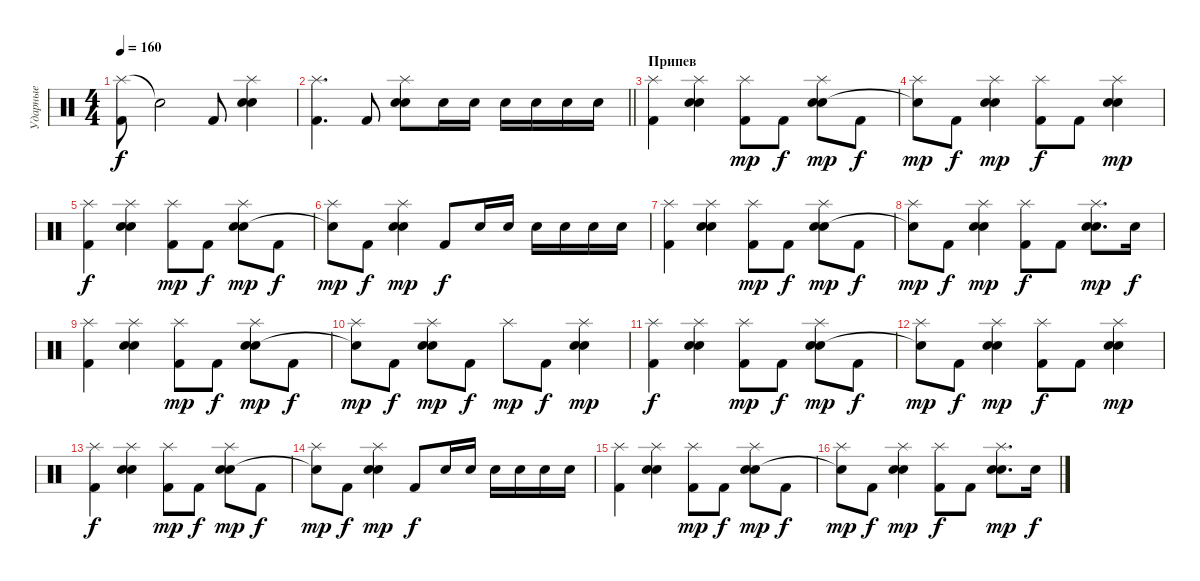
\track ("Ударные" "Ударные") {instrument percussion}
\staff {score}
\articulation defaults
\ts (4 4)
\tempo 160
\clef neutral
\ks c
("Splash (hit)" "Kick (hit) 2").8{dy f} "Snare (hit)"{t}.2 "Kick (hit) 2".8 ("Splash (hit)" "Electric Snare (hit)" "Snare (hit) 2").4 |
\barLineRight lightlight
("Splash (hit)" "Kick (hit) 2").4{d} "Kick (hit) 2".8 ("Splash (hit)" "Electric Snare (hit)" "Snare (hit) 2").8 "Electric Snare (hit)".16 "Electric Snare (hit)".16 "Electric Snare (hit)".16 "Electric Snare (hit)".16 "Electric Snare (hit)".16 "Electric Snare (hit)".16 |
\section ("" "Припев")
("Splash (hit)" "Kick (hit) 2").4 ("Splash (hit)" "Electric Snare (hit)" "Snare (hit) 2").4 ("Splash (hit)" "Kick (hit) 2").8{dy mp} "Kick (hit) 2".8{dy f} ("Splash (hit)" "Electric Snare (hit)" "Snare (hit) 2").8{dy mp} "Kick (hit) 2".8{dy f} |
("Splash (hit)" "Snare (hit)"{t}).8{dy mp} "Kick (hit) 2".8{dy f} ("Splash (hit)" "Electric Snare (hit)" "Snare (hit) 2").4{dy mp} ("Splash (hit)" "Kick (hit) 2").8{dy f} "Kick (hit) 2".8 ("Splash (hit)" "Electric Snare (hit)" "Snare (hit) 2").4{dy mp} |
("Splash (hit)" "Kick (hit) 2").4{dy f} ("Splash (hit)" "Electric Snare (hit)" "Snare (hit) 2").4 ("Splash (hit)" "Kick (hit) 2").8{dy mp} "Kick (hit) 2".8{dy f} ("Splash (hit)" "Electric Snare (hit)" "Snare (hit) 2").8{dy mp} "Kick (hit) 2".8{dy f} |
("Splash (hit)" "Snare (hit)"{t}).8{dy mp} "Kick (hit) 2".8{dy f} ("Splash (hit)" "Electric Snare (hit)" "Snare (hit) 2").4{dy mp} "Kick (hit) 2".8{dy f} "Electric Snare (hit)".16 "Electric Snare (hit)".16 "Electric Snare (hit)".16 "Electric Snare (hit)".16 "Electric Snare (hit)".16 "Electric Snare (hit)".16 |
("Splash (hit)" "Kick (hit) 2").4 ("Splash (hit)" "Electric Snare (hit)" "Snare (hit) 2").4 ("Splash (hit)" "Kick (hit) 2").8{dy mp} "Kick (hit) 2".8{dy f} ("Splash (hit)" "Electric Snare (hit)" "Snare (hit) 2").8{dy mp} "Kick (hit) 2".8{dy f} |
("Splash (hit)" "Snare (hit)"{t}).8{dy mp} "Kick (hit) 2".8{dy f} ("Splash (hit)" "Electric Snare (hit)" "Snare (hit) 2").4{dy mp} ("Splash (hit)" "Kick (hit) 2").8{dy f} "Kick (hit) 2".8 ("Splash (hit)" "Electric Snare (hit)" "Snare (hit) 2").8{d dy mp} "Electric Snare (hit)".16{dy f} |
("Splash (hit)" "Kick (hit) 2").4 ("Splash (hit)" "Electric Snare (hit)" "Snare (hit) 2").4 ("Splash (hit)" "Kick (hit) 2").8{dy mp} "Kick (hit) 2".8{dy f} ("Splash (hit)" "Electric Snare (hit)" "Snare (hit) 2").8{dy mp} "Kick (hit) 2".8{dy f} |
("Splash (hit)" "Snare (hit)"{t}).8{dy mp} "Kick (hit) 2".8{dy f} ("Splash (hit)" "Electric Snare (hit)" "Snare (hit) 2").8{dy mp} "Kick (hit) 2".8{dy f} "Splash (hit)".8{dy mp} "Kick (hit) 2".8{dy f} ("Splash (hit)" "Electric Snare (hit)" "Snare (hit) 2").4{dy mp} |
("Splash (hit)" "Kick (hit) 2").4{dy f} ("Splash (hit)" "Electric Snare (hit)" "Snare (hit) 2").4 ("Splash (hit)" "Kick (hit) 2").8{dy mp} "Kick (hit) 2".8{dy f} ("Splash (hit)" "Electric Snare (hit)" "Snare (hit) 2").8{dy mp} "Kick (hit) 2".8{dy f} |
("Splash (hit)" "Snare (hit)"{t}).8{dy mp} "Kick (hit) 2".8{dy f} ("Splash (hit)" "Electric Snare (hit)" "Snare (hit) 2").4{dy mp} ("Splash (hit)" "Kick (hit) 2").8{dy f} "Kick (hit) 2".8 ("Splash (hit)" "Electric Snare (hit)" "Snare (hit) 2").4{dy mp} |
("Splash (hit)" "Kick (hit) 2").4{dy f} ("Splash (hit)" "Electric Snare (hit)" "Snare (hit) 2").4 ("Splash (hit)" "Kick (hit) 2").8{dy mp} "Kick (hit) 2".8{dy f} ("Splash (hit)" "Electric Snare (hit)" "Snare (hit) 2").8{dy mp} "Kick (hit) 2".8{dy f} |
("Splash (hit)" "Snare (hit)"{t}).8{dy mp} "Kick (hit) 2".8{dy f} ("Splash (hit)" "Electric Snare (hit)" "Snare (hit) 2").4{dy mp} "Kick (hit) 2".8{dy f} "Electric Snare (hit)".16 "Electric Snare (hit)".16 "Electric Snare (hit)".16 "Electric Snare (hit)".16 "Electric Snare (hit)".16 "Electric Snare (hit)".16 |
("Splash (hit)" "Kick (hit) 2").4 ("Splash (hit)" "Electric Snare (hit)" "Snare (hit) 2").4 ("Splash (hit)" "Kick (hit) 2").8{dy mp} "Kick (hit) 2".8{dy f} ("Splash (hit)" "Electric Snare (hit)" "Snare (hit) 2").8{dy mp} "Kick (hit) 2".8{dy f} |
("Splash (hit)" "Snare (hit)"{t}).8{dy mp} "Kick (hit) 2".8{dy f} ("Splash (hit)" "Electric Snare (hit)" "Snare (hit) 2").4{dy mp} ("Splash (hit)" "Kick (hit) 2").8{dy f} "Kick (hit) 2".8 ("Splash (hit)" "Electric Snare (hit)" "Snare (hit) 2").8{d dy mp} "Electric Snare (hit)".16{dy f}
